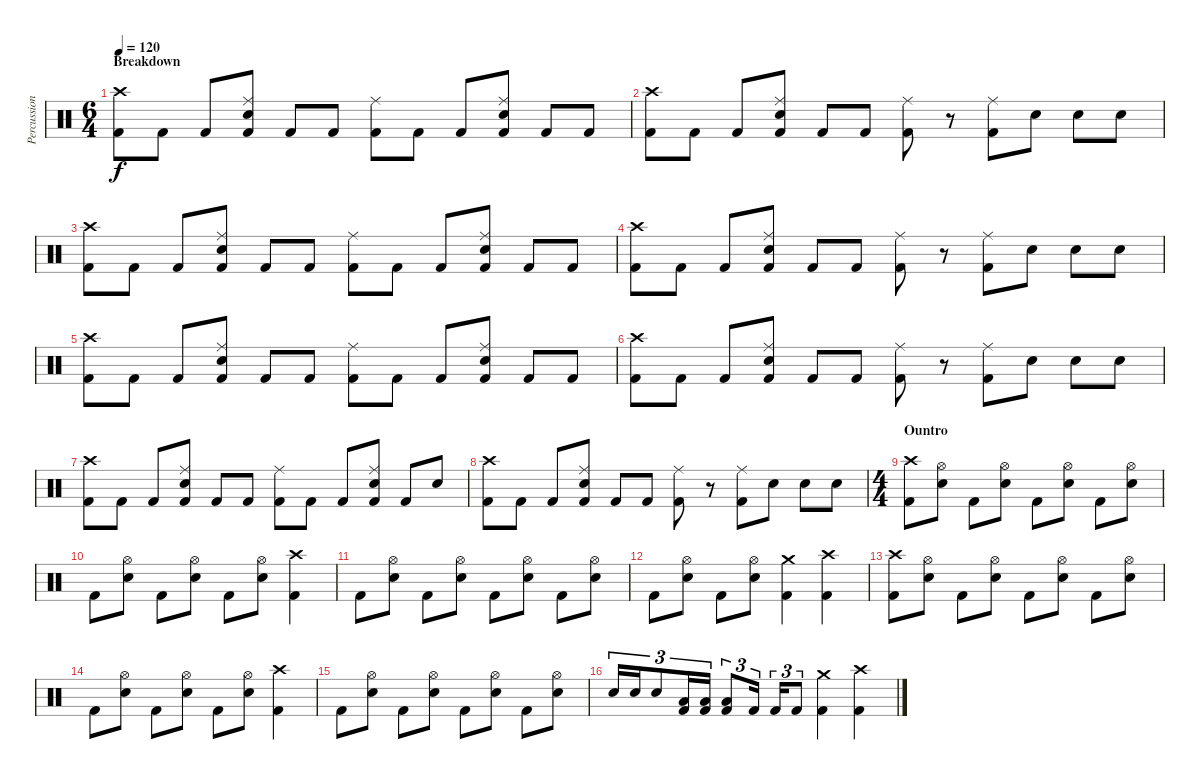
\track ("Percussioni" "Percussion") {instrument percussion}
\staff {score}
\articulation defaults
\ts (6 4)
\section ("" "Breakdown")
\tempo 120
\clef neutral
\ks c
("Crash high (hit)" "Kick (hit) 2").8{dy f} "Kick (hit) 2".8 "Kick (hit) 2".8 ("Ride (middle)" "Electric Snare (hit)" "Kick (hit) 2").8 "Kick (hit) 2".8 "Kick (hit) 2".8 ("Ride (middle)" "Kick (hit) 2").8 "Kick (hit) 2".8 "Kick (hit) 2".8 ("Ride (middle)" "Electric Snare (hit)" "Kick (hit) 2").8 "Kick (hit) 2".8 "Kick (hit) 2".8 |
("Crash high (hit)" "Kick (hit) 2").8 "Kick (hit) 2".8 "Kick (hit) 2".8 ("Ride (middle)" "Electric Snare (hit)" "Kick (hit) 2").8 "Kick (hit) 2".8 "Kick (hit) 2".8 ("Ride (middle)" "Kick (hit) 2").8 r.8 ("Ride (middle)" "Kick (hit) 2").8 "Electric Snare (hit)".8 "Electric Snare (hit)".8 "Electric Snare (hit)".8 |
("Crash high (hit)" "Kick (hit) 2").8 "Kick (hit) 2".8 "Kick (hit) 2".8 ("Ride (middle)" "Electric Snare (hit)" "Kick (hit) 2").8 "Kick (hit) 2".8 "Kick (hit) 2".8 ("Ride (middle)" "Kick (hit) 2").8 "Kick (hit) 2".8 "Kick (hit) 2".8 ("Ride (middle)" "Electric Snare (hit)" "Kick (hit) 2").8 "Kick (hit) 2".8 "Kick (hit) 2".8 |
("Crash high (hit)" "Kick (hit) 2").8 "Kick (hit) 2".8 "Kick (hit) 2".8 ("Ride (middle)" "Electric Snare (hit)" "Kick (hit) 2").8 "Kick (hit) 2".8 "Kick (hit) 2".8 ("Ride (middle)" "Kick (hit) 2").8 r.8 ("Ride (middle)" "Kick (hit) 2").8 "Electric Snare (hit)".8 "Electric Snare (hit)".8 "Electric Snare (hit)".8 |
("Crash high (hit)" "Kick (hit) 2").8 "Kick (hit) 2".8 "Kick (hit) 2".8 ("Ride (middle)" "Electric Snare (hit)" "Kick (hit) 2").8 "Kick (hit) 2".8 "Kick (hit) 2".8 ("Ride (middle)" "Kick (hit) 2").8 "Kick (hit) 2".8 "Kick (hit) 2".8 ("Ride (middle)" "Electric Snare (hit)" "Kick (hit) 2").8 "Kick (hit) 2".8 "Kick (hit) 2".8 |
("Crash high (hit)" "Kick (hit) 2").8 "Kick (hit) 2".8 "Kick (hit) 2".8 ("Ride (middle)" "Electric Snare (hit)" "Kick (hit) 2").8 "Kick (hit) 2".8 "Kick (hit) 2".8 ("Ride (middle)" "Kick (hit) 2").8 r.8 ("Ride (middle)" "Kick (hit) 2").8 "Electric Snare (hit)".8 "Electric Snare (hit)".8 "Electric Snare (hit)".8 |
("Crash high (hit)" "Kick (hit) 2").8 "Kick (hit) 2".8 "Kick (hit) 2".8 ("Ride (middle)" "Electric Snare (hit)" "Kick (hit) 2").8 "Kick (hit) 2".8 "Kick (hit) 2".8 ("Ride (middle)" "Kick (hit) 2").8 "Kick (hit) 2".8 "Kick (hit) 2".8 ("Ride (middle)" "Electric Snare (hit)" "Kick (hit) 2").8 "Kick (hit) 2".8 "Electric Snare (hit)".8 |
("Crash high (hit)" "Kick (hit) 2").8 "Kick (hit) 2".8 "Kick (hit) 2".8 ("Ride (middle)" "Electric Snare (hit)" "Kick (hit) 2").8 "Kick (hit) 2".8 "Kick (hit) 2".8 ("Ride (middle)" "Kick (hit) 2").8 r.8 ("Ride (middle)" "Kick (hit) 2").8 "Electric Snare (hit)".8 "Electric Snare (hit)".8 "Electric Snare (hit)".8 |
\ts (4 4)
\section ("" "Ountro")
("Crash high (hit)" "Kick (hit) 2").8 ("Hi-Hat (open)" "Electric Snare (hit)").8 "Kick (hit) 2".8 ("Hi-Hat (open)" "Electric Snare (hit)").8 "Kick (hit) 2".8 ("Hi-Hat (open)" "Electric Snare (hit)").8 "Kick (hit) 2".8 ("Hi-Hat (open)" "Electric Snare (hit)").8 |
"Kick (hit) 2".8 ("Hi-Hat (open)" "Electric Snare (hit)").8 "Kick (hit) 2".8 ("Hi-Hat (open)" "Electric Snare (hit)").8 "Kick (hit) 2".8 ("Hi-Hat (open)" "Electric Snare (hit)").8 ("Crash high (hit)" "Kick (hit) 2").4 |
"Kick (hit) 2".8 ("Hi-Hat (open)" "Electric Snare (hit)").8 "Kick (hit) 2".8 ("Hi-Hat (open)" "Electric Snare (hit)").8 "Kick (hit) 2".8 ("Hi-Hat (open)" "Electric Snare (hit)").8 "Kick (hit) 2".8 ("Hi-Hat (open)" "Electric Snare (hit)").8 |
"Kick (hit) 2".8 ("Hi-Hat (open)" "Electric Snare (hit)").8 "Kick (hit) 2".8 ("Hi-Hat (open)" "Electric Snare (hit)").8 ("Crash medium (hit)" "Kick (hit) 2").4 ("Crash high (hit)" "Kick (hit) 2").4 |
("Crash high (hit)" "Kick (hit) 2").8 ("Hi-Hat (open)" "Electric Snare (hit)").8 "Kick (hit) 2".8 ("Hi-Hat (open)" "Electric Snare (hit)").8 "Kick (hit) 2".8 ("Hi-Hat (open)" "Electric Snare (hit)").8 "Kick (hit) 2".8 ("Hi-Hat (open)" "Electric Snare (hit)").8 |
"Kick (hit) 2".8 ("Hi-Hat (open)" "Electric Snare (hit)").8 "Kick (hit) 2".8 ("Hi-Hat (open)" "Electric Snare (hit)").8 "Kick (hit) 2".8 ("Hi-Hat (open)" "Electric Snare (hit)").8 ("Crash high (hit)" "Kick (hit) 2").4 |
"Kick (hit) 2".8 ("Hi-Hat (open)" "Electric Snare (hit)").8 "Kick (hit) 2".8 ("Hi-Hat (open)" "Electric Snare (hit)").8 "Kick (hit) 2".8 ("Hi-Hat (open)" "Electric Snare (hit)").8 "Kick (hit) 2".8 ("Hi-Hat (open)" "Electric Snare (hit)").8 |
"Electric Snare (hit)".16{tu (3 2)} "Electric Snare (hit)".16{tu (3 2)} "Electric Snare (hit)".8{tu (3 2)} ("Low Floor Tom (hit)" "Kick (hit) 2").16{tu (3 2)} ("Low Floor Tom (hit)" "Kick (hit) 2").16{tu (3 2)} ("Low Floor Tom (hit)" "Kick (hit) 2").8{tu (3 2)} "Kick (hit) 2".16{tu (3 2)} "Kick (hit) 2".16{tu (3 2)} "Kick (hit) 2".8{tu (3 2)} ("Crash medium (hit)" "Kick (hit) 2").4 ("Crash high (hit)" "Kick (hit) 2").4
